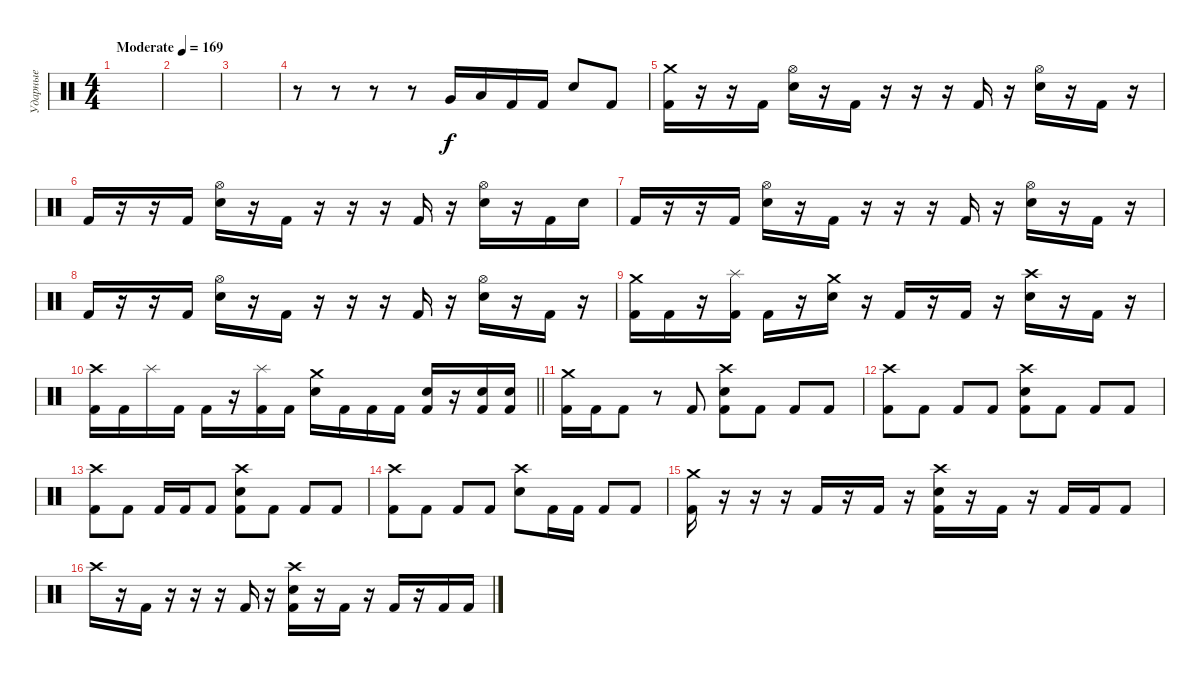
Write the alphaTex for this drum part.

\track ("Ударные" "Ударные") {instrument percussion}
\staff {score}
\articulation defaults
\ts (4 4)
\tempo (169 "Moderate")
\clef neutral
\ks c
|
|
|
r.8 r.8 r.8 r.8 "Very Low Tom (hit)".16 "Low Floor Tom (hit)".16 "Kick (hit) 2".16 "Kick (hit) 2".16 "Snare (hit) 2".8 "Kick (hit) 2".8 |
("Kick (hit) 2" "Crash medium (hit)").16 r.16 r.16 "Kick (hit) 2".16 ("Snare (hit) 2" "Hi-Hat (open)").16 r.16 "Kick (hit) 2".16 r.16 r.16 r.16 "Kick (hit) 2".16 r.16 ("Snare (hit) 2" "Hi-Hat (open)").16 r.16 "Kick (hit) 2".16 r.16 |
"Kick (hit) 2".16 r.16 r.16 "Kick (hit) 2".16 ("Snare (hit) 2" "Hi-Hat (open)").16 r.16 "Kick (hit) 2".16 r.16 r.16 r.16 "Kick (hit) 2".16 r.16 ("Snare (hit) 2" "Hi-Hat (open)").16 r.16 "Kick (hit) 2".16 "Snare (hit) 2".16 |
"Kick (hit) 2".16 r.16 r.16 "Kick (hit) 2".16 ("Snare (hit) 2" "Hi-Hat (open)").16 r.16 "Kick (hit) 2".16 r.16 r.16 r.16 "Kick (hit) 2".16 r.16 ("Snare (hit) 2" "Hi-Hat (open)").16 r.16 "Kick (hit) 2".16 r.16 |
"Kick (hit) 2".16 r.16 r.16 "Kick (hit) 2".16 ("Snare (hit) 2" "Hi-Hat (open)").16 r.16 "Kick (hit) 2".16 r.16 r.16 r.16 "Kick (hit) 2".16 r.16 ("Snare (hit) 2" "Hi-Hat (open)").16 r.16 "Kick (hit) 2".16 r.16 |
("Crash medium (hit)" "Kick (hit) 2").16 "Kick (hit) 2".16 r.16 ("Splash (hit)" "Kick (hit) 2").16 "Kick (hit) 2".16 r.16 ("Crash medium (hit)" "Snare (hit) 2").16 r.16 "Kick (hit) 2".16 r.16 "Kick (hit) 2".16 r.16 ("Crash high (hit)" "Snare (hit) 2").16 r.16 "Kick (hit) 2".16 r.16 |
\barLineRight lightlight
("Crash high (hit)" "Kick (hit) 2").16 "Kick (hit) 2".16 "Splash (hit)".16 "Kick (hit) 2".16 "Kick (hit) 2".16 r.16 ("Splash (hit)" "Kick (hit) 2").16 "Kick (hit) 2".16 ("Snare (hit) 2" "Crash medium (hit)").16 "Kick (hit) 2".16 "Kick (hit) 2".16 "Kick (hit) 2".16 ("Snare (hit) 2" "Kick (hit) 2").16 r.16 ("Snare (hit) 2" "Kick (hit) 2").16 ("Snare (hit) 2" "Kick (hit) 2").16 |
("Crash medium (hit)" "Kick (hit) 2").16 "Kick (hit) 2".16 "Kick (hit) 2".8 r.8 "Kick (hit) 2".8 ("Crash high (hit)" "Snare (hit) 2" "Kick (hit) 2").8 "Kick (hit) 2".8 "Kick (hit) 2".8 "Kick (hit) 2".8 |
("Crash high (hit)" "Kick (hit) 2").8 "Kick (hit) 2".8 "Kick (hit) 2".8 "Kick (hit) 2".8 ("Crash high (hit)" "Snare (hit) 2" "Kick (hit) 2").8 "Kick (hit) 2".8 "Kick (hit) 2".8 "Kick (hit) 2".8 |
("Crash high (hit)" "Kick (hit) 2").8 "Kick (hit) 2".8 "Kick (hit) 2".16 "Kick (hit) 2".16 "Kick (hit) 2".8 ("Crash high (hit)" "Snare (hit) 2" "Kick (hit) 2").8 "Kick (hit) 2".8 "Kick (hit) 2".8 "Kick (hit) 2".8 |
("Crash high (hit)" "Kick (hit) 2").8 "Kick (hit) 2".8 "Kick (hit) 2".8 "Kick (hit) 2".8 ("Crash high (hit)" "Snare (hit) 2").8 "Kick (hit) 2".16 "Kick (hit) 2".16 "Kick (hit) 2".8 "Kick (hit) 2".8 |
("Crash medium (hit)" "Kick (hit) 2").16 r.16 r.16 r.16 "Kick (hit) 2".16 r.16 "Kick (hit) 2".16 r.16 ("Crash high (hit)" "Snare (hit) 2" "Kick (hit) 2").16 r.16 "Kick (hit) 2".16 r.16 "Kick (hit) 2".16 "Kick (hit) 2".16 "Kick (hit) 2".8 |
"Crash high (hit)".16 r.16 "Kick (hit) 2".16 r.16 r.16 r.16 "Kick (hit) 2".16 r.16 ("Crash high (hit)" "Snare (hit) 2" "Kick (hit) 2").16 r.16 "Kick (hit) 2".16 r.16 "Kick (hit) 2".16 r.16 "Kick (hit) 2".16 "Kick (hit) 2".16
